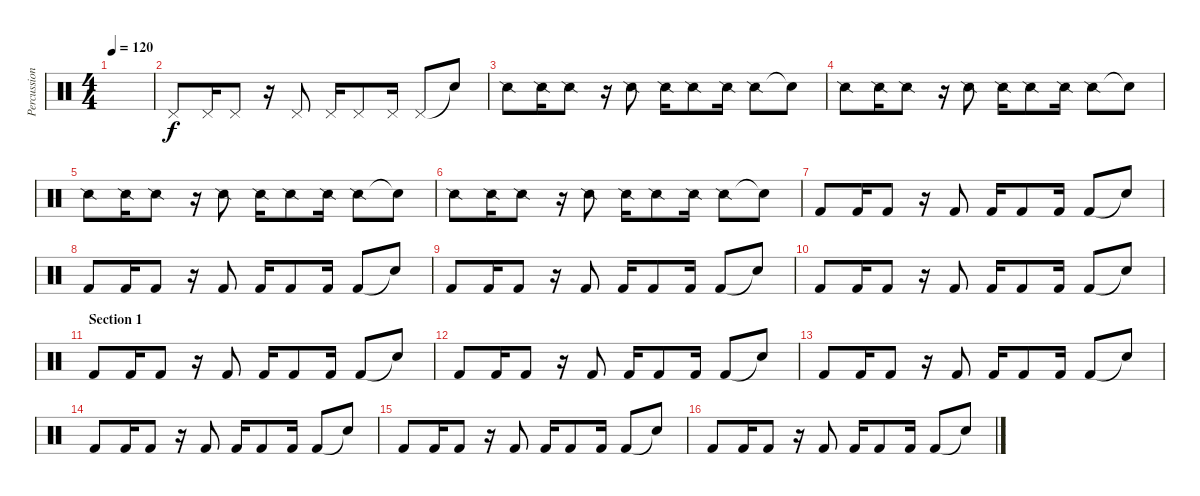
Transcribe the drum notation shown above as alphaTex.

\track ("Percussion" "Percussion") {instrument percussion}
\staff {score}
\articulation defaults
\ts (4 4)
\tempo 120
\clef neutral
\ks c
|
"Pedal Hi-Hat (hit)".8 "Pedal Hi-Hat (hit)".16 "Pedal Hi-Hat (hit)".8 r.16 "Pedal Hi-Hat (hit)".8 "Pedal Hi-Hat (hit)".16 "Pedal Hi-Hat (hit)".8 "Pedal Hi-Hat (hit)".16 "Pedal Hi-Hat (hit)".8 "Snare (hit)"{t}.8{dy f} |
"Snare (side stick) 2".8 "Snare (side stick) 2".16 "Snare (side stick) 2".8 r.16 "Snare (side stick) 2".8 "Snare (side stick) 2".16 "Snare (side stick) 2".8 "Snare (side stick) 2".16 "Snare (side stick) 2".8 "Snare (hit)"{t}.8 |
"Snare (side stick) 2".8 "Snare (side stick) 2".16 "Snare (side stick) 2".8 r.16 "Snare (side stick) 2".8 "Snare (side stick) 2".16 "Snare (side stick) 2".8 "Snare (side stick) 2".16 "Snare (side stick) 2".8 "Snare (hit)"{t}.8 |
"Snare (side stick) 2".8 "Snare (side stick) 2".16 "Snare (side stick) 2".8 r.16 "Snare (side stick) 2".8 "Snare (side stick) 2".16 "Snare (side stick) 2".8 "Snare (side stick) 2".16 "Snare (side stick) 2".8 "Snare (hit)"{t}.8 |
"Snare (side stick) 2".8 "Snare (side stick) 2".16 "Snare (side stick) 2".8 r.16 "Snare (side stick) 2".8 "Snare (side stick) 2".16 "Snare (side stick) 2".8 "Snare (side stick) 2".16 "Snare (side stick) 2".8 "Snare (hit)"{t}.8 |
"Kick (hit) 2".8 "Kick (hit) 2".16 "Kick (hit) 2".8 r.16 "Kick (hit) 2".8 "Kick (hit) 2".16 "Kick (hit) 2".8 "Kick (hit) 2".16 "Kick (hit) 2".8 "Snare (hit)"{t}.8 |
"Kick (hit) 2".8 "Kick (hit) 2".16 "Kick (hit) 2".8 r.16 "Kick (hit) 2".8 "Kick (hit) 2".16 "Kick (hit) 2".8 "Kick (hit) 2".16 "Kick (hit) 2".8 "Snare (hit)"{t}.8 |
"Kick (hit) 2".8 "Kick (hit) 2".16 "Kick (hit) 2".8 r.16 "Kick (hit) 2".8 "Kick (hit) 2".16 "Kick (hit) 2".8 "Kick (hit) 2".16 "Kick (hit) 2".8 "Snare (hit)"{t}.8 |
"Kick (hit) 2".8 "Kick (hit) 2".16 "Kick (hit) 2".8 r.16 "Kick (hit) 2".8 "Kick (hit) 2".16 "Kick (hit) 2".8 "Kick (hit) 2".16 "Kick (hit) 2".8 "Snare (hit)"{t}.8 |
\section ("" "Section 1")
"Kick (hit) 2".8 "Kick (hit) 2".16 "Kick (hit) 2".8 r.16 "Kick (hit) 2".8 "Kick (hit) 2".16 "Kick (hit) 2".8 "Kick (hit) 2".16 "Kick (hit) 2".8 "Snare (hit)"{t}.8 |
"Kick (hit) 2".8 "Kick (hit) 2".16 "Kick (hit) 2".8 r.16 "Kick (hit) 2".8 "Kick (hit) 2".16 "Kick (hit) 2".8 "Kick (hit) 2".16 "Kick (hit) 2".8 "Snare (hit)"{t}.8 |
"Kick (hit) 2".8 "Kick (hit) 2".16 "Kick (hit) 2".8 r.16 "Kick (hit) 2".8 "Kick (hit) 2".16 "Kick (hit) 2".8 "Kick (hit) 2".16 "Kick (hit) 2".8 "Snare (hit)"{t}.8 |
"Kick (hit) 2".8 "Kick (hit) 2".16 "Kick (hit) 2".8 r.16 "Kick (hit) 2".8 "Kick (hit) 2".16 "Kick (hit) 2".8 "Kick (hit) 2".16 "Kick (hit) 2".8 "Snare (hit)"{t}.8 |
"Kick (hit) 2".8 "Kick (hit) 2".16 "Kick (hit) 2".8 r.16 "Kick (hit) 2".8 "Kick (hit) 2".16 "Kick (hit) 2".8 "Kick (hit) 2".16 "Kick (hit) 2".8 "Snare (hit)"{t}.8 |
"Kick (hit) 2".8 "Kick (hit) 2".16 "Kick (hit) 2".8 r.16 "Kick (hit) 2".8 "Kick (hit) 2".16 "Kick (hit) 2".8 "Kick (hit) 2".16 "Kick (hit) 2".8 "Snare (hit)"{t}.8
